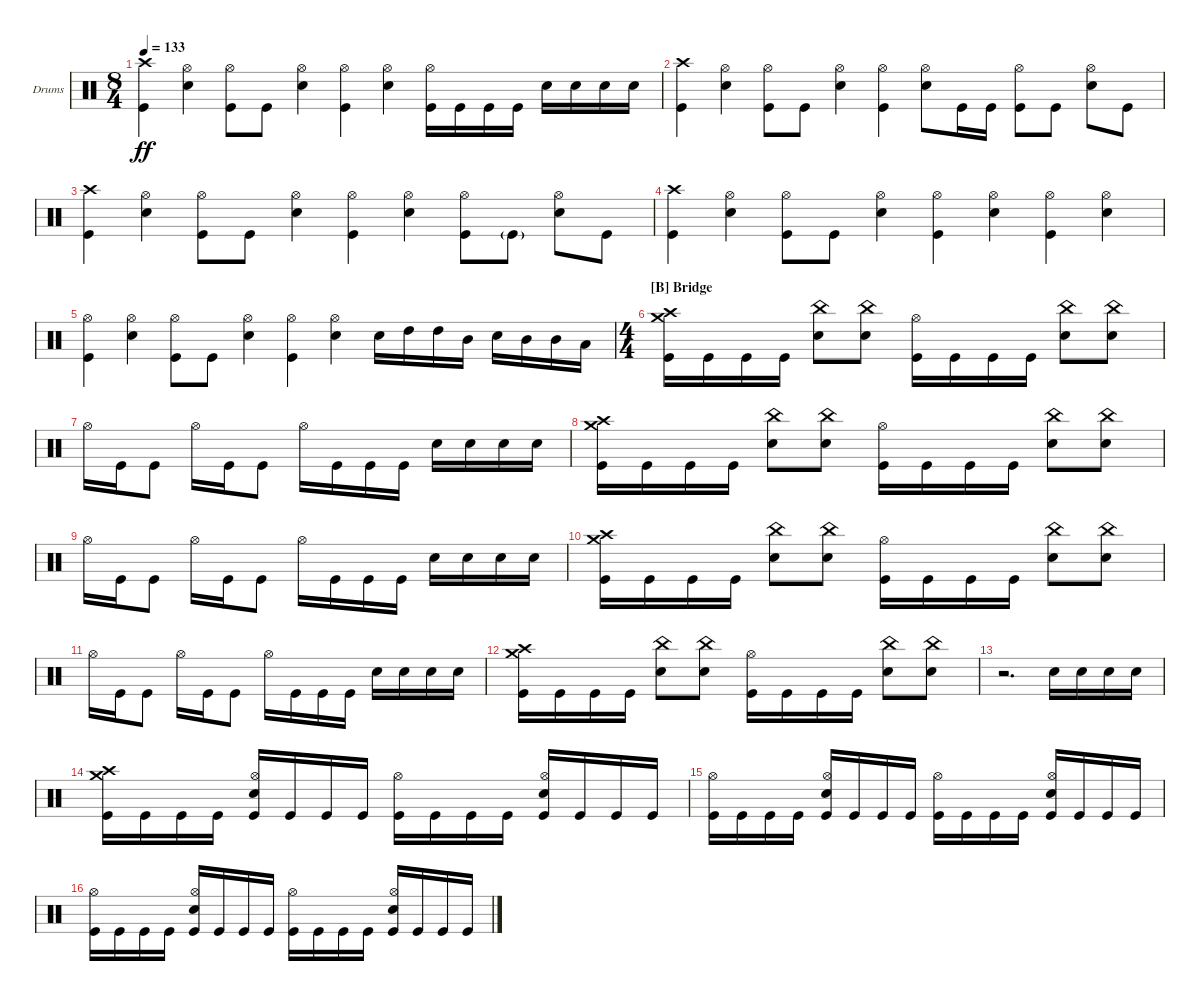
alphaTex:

\bracketExtendMode groupsimilarinstruments
\firstSystemTrackNameOrientation horizontal
\otherSystemsTrackNameOrientation horizontal
\track ("Drumkit" "Drums") {instrument percussion}
\staff {score}
\articulation defaults
\ts (8 4)
\tempo 133
\clef neutral
\ks c
("Kick (hit)" "Crash high (hit)").4{dy ff} ("Hi-Hat (open)" "Snare (hit) 2").4 ("Hi-Hat (open)" "Kick (hit)").8 "Kick (hit)".8 ("Hi-Hat (open)" "Snare (hit) 2").4 ("Hi-Hat (open)" "Kick (hit)").4 ("Hi-Hat (open)" "Snare (hit) 2").4 ("Kick (hit)" "Hi-Hat (open)").16 "Kick (hit)".16 "Kick (hit)".16 "Kick (hit)".16 "Snare (hit) 2".16 "Snare (hit) 2".16 "Snare (hit) 2".16 "Snare (hit) 2".16 |
("Kick (hit)" "Crash high (hit)").4 ("Hi-Hat (open)" "Snare (hit) 2").4 ("Hi-Hat (open)" "Kick (hit)").8 "Kick (hit)".8 ("Hi-Hat (open)" "Snare (hit) 2").4 ("Hi-Hat (open)" "Kick (hit)").4 ("Hi-Hat (open)" "Snare (hit) 2").8 "Kick (hit)".16 "Kick (hit)".16 ("Kick (hit)" "Hi-Hat (open)").8 "Kick (hit)".8 ("Snare (hit) 2" "Hi-Hat (open)").8 "Kick (hit)".8 |
("Kick (hit)" "Crash high (hit)").4 ("Hi-Hat (open)" "Snare (hit) 2").4 ("Hi-Hat (open)" "Kick (hit)").8 "Kick (hit)".8 ("Hi-Hat (open)" "Snare (hit) 2").4 ("Hi-Hat (open)" "Kick (hit)").4 ("Hi-Hat (open)" "Snare (hit) 2").4 ("Hi-Hat (open)" "Kick (hit)").8 "Kick (hit)"{g}.8 ("Hi-Hat (open)" "Snare (hit) 2").8 "Kick (hit)".8 |
("Kick (hit)" "Crash high (hit)").4 ("Hi-Hat (open)" "Snare (hit) 2").4 ("Hi-Hat (open)" "Kick (hit)").8 "Kick (hit)".8 ("Hi-Hat (open)" "Snare (hit) 2").4 ("Hi-Hat (open)" "Kick (hit)").4 ("Hi-Hat (open)" "Snare (hit) 2").4 ("Hi-Hat (open)" "Kick (hit)").4 ("Hi-Hat (open)" "Snare (hit) 2").4 |
("Kick (hit)" "Hi-Hat (open)").4 ("Hi-Hat (open)" "Snare (hit) 2").4 ("Hi-Hat (open)" "Kick (hit)").8 "Kick (hit)".8 ("Hi-Hat (open)" "Snare (hit) 2").4 ("Hi-Hat (open)" "Kick (hit)").4 ("Hi-Hat (open)" "Snare (hit) 2").4 "Snare (hit) 2".16 "High Tom (hit)".16 "High Tom (hit)".16 "Mid Tom (hit)".16 "Snare (hit) 2".16 "Mid Tom (hit)".16 "Mid Tom (hit)".16 "Low Tom (hit)".16 |
\ts (4 4)
\section ("B" "Bridge")
("Kick (hit)" "Crash high (hit)" "Crash medium (hit)").16 "Kick (hit)".16 "Kick (hit)".16 "Kick (hit)".16 ("Snare (hit) 2" "China (hit)").8 ("Snare (hit) 2" "China (hit)").8 ("Kick (hit)" "Hi-Hat (open)").16 "Kick (hit)".16 "Kick (hit)".16 "Kick (hit)".16 ("Snare (hit) 2" "China (hit)").8 ("Snare (hit) 2" "China (hit)").8 |
"Hi-Hat (open)".16 "Kick (hit)".16 "Kick (hit)".8 "Hi-Hat (open)".16 "Kick (hit)".16 "Kick (hit)".8 "Hi-Hat (open)".16 "Kick (hit)".16 "Kick (hit)".16 "Kick (hit)".16 "Snare (hit) 2".16 "Snare (hit) 2".16 "Snare (hit) 2".16 "Snare (hit) 2".16 |
("Kick (hit)" "Crash high (hit)" "Crash medium (hit)").16 "Kick (hit)".16 "Kick (hit)".16 "Kick (hit)".16 ("Snare (hit) 2" "China (hit)").8 ("Snare (hit) 2" "China (hit)").8 ("Kick (hit)" "Hi-Hat (open)").16 "Kick (hit)".16 "Kick (hit)".16 "Kick (hit)".16 ("Snare (hit) 2" "China (hit)").8 ("Snare (hit) 2" "China (hit)").8 |
"Hi-Hat (open)".16 "Kick (hit)".16 "Kick (hit)".8 "Hi-Hat (open)".16 "Kick (hit)".16 "Kick (hit)".8 "Hi-Hat (open)".16 "Kick (hit)".16 "Kick (hit)".16 "Kick (hit)".16 "Snare (hit) 2".16 "Snare (hit) 2".16 "Snare (hit) 2".16 "Snare (hit) 2".16 |
("Kick (hit)" "Crash high (hit)" "Crash medium (hit)").16 "Kick (hit)".16 "Kick (hit)".16 "Kick (hit)".16 ("Snare (hit) 2" "China (hit)").8 ("Snare (hit) 2" "China (hit)").8 ("Kick (hit)" "Hi-Hat (open)").16 "Kick (hit)".16 "Kick (hit)".16 "Kick (hit)".16 ("Snare (hit) 2" "China (hit)").8 ("Snare (hit) 2" "China (hit)").8 |
"Hi-Hat (open)".16 "Kick (hit)".16 "Kick (hit)".8 "Hi-Hat (open)".16 "Kick (hit)".16 "Kick (hit)".8 "Hi-Hat (open)".16 "Kick (hit)".16 "Kick (hit)".16 "Kick (hit)".16 "Snare (hit) 2".16 "Snare (hit) 2".16 "Snare (hit) 2".16 "Snare (hit) 2".16 |
("Kick (hit)" "Crash high (hit)" "Crash medium (hit)").16 "Kick (hit)".16 "Kick (hit)".16 "Kick (hit)".16 ("Snare (hit) 2" "China (hit)").8 ("Snare (hit) 2" "China (hit)").8 ("Kick (hit)" "Hi-Hat (open)").16 "Kick (hit)".16 "Kick (hit)".16 "Kick (hit)".16 ("Snare (hit) 2" "China (hit)").8 ("Snare (hit) 2" "China (hit)").8 |
r.2{d} "Snare (hit) 2".16 "Snare (hit) 2".16 "Snare (hit) 2".16 "Snare (hit) 2".16 |
("Crash high (hit)" "Crash medium (hit)" "Kick (hit)").16 "Kick (hit)".16 "Kick (hit)".16 "Kick (hit)".16 ("Kick (hit)" "Hi-Hat (open)" "Snare (hit) 2").16 "Kick (hit)".16 "Kick (hit)".16 "Kick (hit)".16 ("Kick (hit)" "Hi-Hat (open)").16 "Kick (hit)".16 "Kick (hit)".16 "Kick (hit)".16 ("Kick (hit)" "Hi-Hat (open)" "Snare (hit) 2").16 "Kick (hit)".16 "Kick (hit)".16 "Kick (hit)".16 |
("Kick (hit)" "Hi-Hat (open)").16 "Kick (hit)".16 "Kick (hit)".16 "Kick (hit)".16 ("Kick (hit)" "Hi-Hat (open)" "Snare (hit) 2").16 "Kick (hit)".16 "Kick (hit)".16 "Kick (hit)".16 ("Kick (hit)" "Hi-Hat (open)").16 "Kick (hit)".16 "Kick (hit)".16 "Kick (hit)".16 ("Kick (hit)" "Hi-Hat (open)" "Snare (hit) 2").16 "Kick (hit)".16 "Kick (hit)".16 "Kick (hit)".16 |
("Kick (hit)" "Hi-Hat (open)").16 "Kick (hit)".16 "Kick (hit)".16 "Kick (hit)".16 ("Kick (hit)" "Hi-Hat (open)" "Snare (hit) 2").16 "Kick (hit)".16 "Kick (hit)".16 "Kick (hit)".16 ("Kick (hit)" "Hi-Hat (open)").16 "Kick (hit)".16 "Kick (hit)".16 "Kick (hit)".16 ("Kick (hit)" "Hi-Hat (open)" "Snare (hit) 2").16 "Kick (hit)".16 "Kick (hit)".16 "Kick (hit)".16
